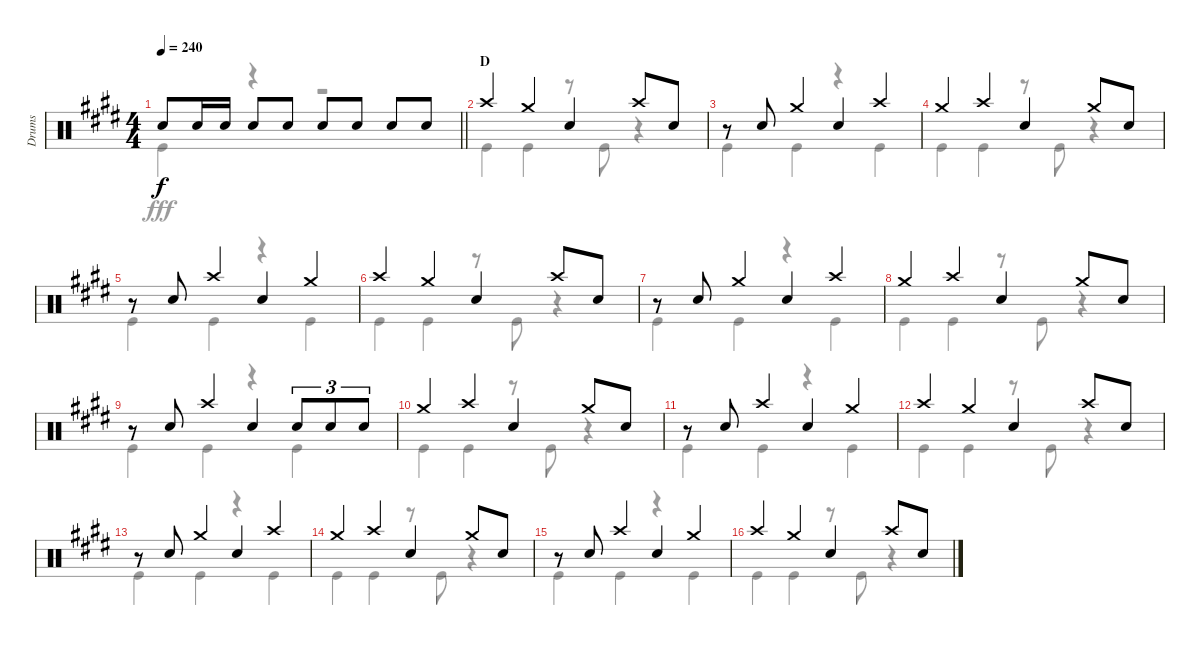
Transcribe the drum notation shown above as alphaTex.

\track ("Drums" "Drums") {instrument percussion}
\staff {score}
\articulation defaults
\voice
\ts (4 4)
\tempo 240
\clef neutral
\barLineRight lightlight
\ks e "Snare (hit)"{t}.8{dy f} "Snare (hit) 2".16 "Snare (hit) 2".16 "Snare (hit) 2".8 "Snare (hit) 2".8 "Snare (hit) 2".8 "Snare (hit) 2".8 "Snare (hit) 2".8 "Snare (hit) 2".8
|
\section ("" "D")
"Crash high (hit)".4 "Crash medium (hit)".4 "Snare (hit) 2".4 "Crash high (hit)".8 "Snare (hit) 2".8 |
r.8 "Snare (hit) 2".8 "Crash medium (hit)".4 "Snare (hit) 2".4 "Crash high (hit)".4 |
"Crash medium (hit)".4 "Crash high (hit)".4 "Snare (hit) 2".4 "Crash medium (hit)".8 "Snare (hit) 2".8 |
r.8 "Snare (hit) 2".8 "Crash high (hit)".4 "Snare (hit) 2".4 "Crash medium (hit)".4 |
"Crash high (hit)".4 "Crash medium (hit)".4 "Snare (hit) 2".4 "Crash high (hit)".8 "Snare (hit) 2".8 |
r.8 "Snare (hit) 2".8 "Crash medium (hit)".4 "Snare (hit) 2".4 "Crash high (hit)".4 |
"Crash medium (hit)".4 "Crash high (hit)".4 "Snare (hit) 2".4 "Crash medium (hit)".8 "Snare (hit) 2".8 |
r.8 "Snare (hit) 2".8 "Crash high (hit)".4 "Snare (hit) 2".4 "Snare (hit) 2".8{tu (3 2)} "Snare (hit) 2".8{tu (3 2)} "Snare (hit) 2".8{tu (3 2)} |
"Crash medium (hit)".4 "Crash high (hit)".4 "Snare (hit) 2".4 "Crash medium (hit)".8 "Snare (hit) 2".8 |
r.8 "Snare (hit) 2".8 "Crash high (hit)".4 "Snare (hit) 2".4 "Crash medium (hit)".4 |
"Crash high (hit)".4 "Crash medium (hit)".4 "Snare (hit) 2".4 "Crash high (hit)".8 "Snare (hit) 2".8 |
r.8 "Snare (hit) 2".8 "Crash medium (hit)".4 "Snare (hit) 2".4 "Crash high (hit)".4 |
"Crash medium (hit)".4 "Crash high (hit)".4 "Snare (hit) 2".4 "Crash medium (hit)".8 "Snare (hit) 2".8 |
r.8 "Snare (hit) 2".8 "Crash high (hit)".4 "Snare (hit) 2".4 "Crash medium (hit)".4 |
"Crash high (hit)".4 "Crash medium (hit)".4 "Snare (hit) 2".4 "Crash high (hit)".8 "Snare (hit) 2".8
\voice
\clef neutral
\ottava regular
\simile none
\barLineRight lightlight
\ks e "Kick (hit)".4{dy fff}
r.4 r.2 |
"Kick (hit)".4 "Kick (hit)".4 r.8 "Kick (hit)".8 r.4 |
"Kick (hit)".4 "Kick (hit)".4 r.4 "Kick (hit)".4 |
"Kick (hit)".4 "Kick (hit)".4 r.8 "Kick (hit)".8 r.4 |
"Kick (hit)".4 "Kick (hit)".4 r.4 "Kick (hit)".4 |
"Kick (hit)".4 "Kick (hit)".4 r.8 "Kick (hit)".8 r.4 |
"Kick (hit)".4 "Kick (hit)".4 r.4 "Kick (hit)".4 |
"Kick (hit)".4 "Kick (hit)".4 r.8 "Kick (hit)".8 r.4 |
"Kick (hit)".4 "Kick (hit)".4 r.4 "Kick (hit)".4 |
"Kick (hit)".4 "Kick (hit)".4 r.8 "Kick (hit)".8 r.4 |
"Kick (hit)".4 "Kick (hit)".4 r.4 "Kick (hit)".4 |
"Kick (hit)".4 "Kick (hit)".4 r.8 "Kick (hit)".8 r.4 |
"Kick (hit)".4 "Kick (hit)".4 r.4 "Kick (hit)".4 |
"Kick (hit)".4 "Kick (hit)".4 r.8 "Kick (hit)".8 r.4 |
"Kick (hit)".4 "Kick (hit)".4 r.4 "Kick (hit)".4 |
"Kick (hit)".4 "Kick (hit)".4 r.8 "Kick (hit)".8 r.4
